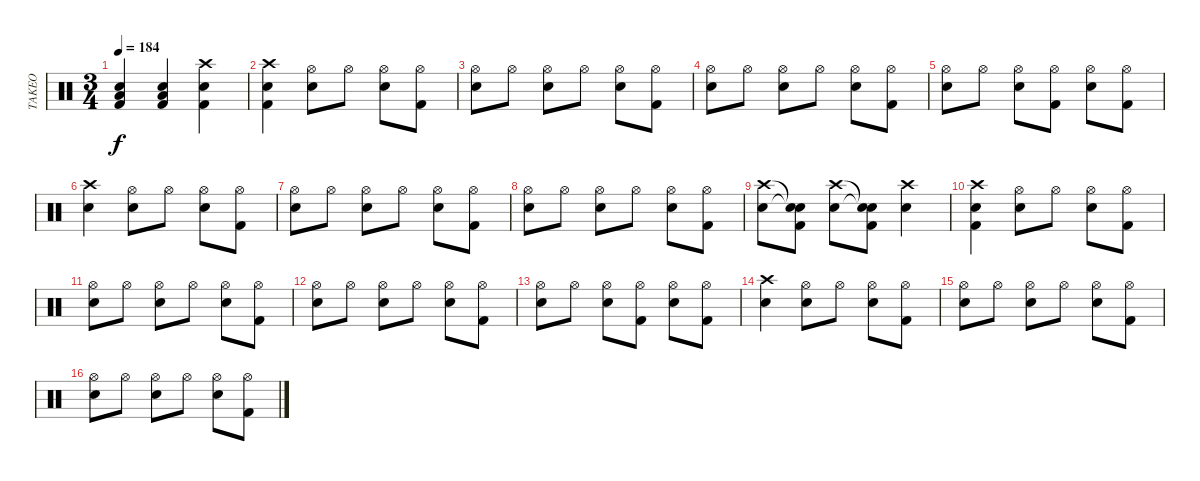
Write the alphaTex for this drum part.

\track ("TAKEO" "TAKEO") {instrument percussion}
\staff {score}
\articulation defaults
\ts (3 4)
\tempo 184
\clef neutral
\ks c
("Electric Snare (hit)" "Low Floor Tom (hit)" "Kick (hit) 2").4{dy f} ("Electric Snare (hit)" "Low Floor Tom (hit)" "Kick (hit) 2").4 ("Crash high (hit)" "Electric Snare (hit)" "Kick (hit) 2").4 |
("Crash high (hit)" "Electric Snare (hit)" "Kick (hit) 2").4 ("Hi-Hat (open)" "Electric Snare (hit)").8 "Hi-Hat (open)".8 ("Hi-Hat (open)" "Electric Snare (hit)").8 ("Hi-Hat (open)" "Kick (hit) 2").8 |
("Hi-Hat (open)" "Electric Snare (hit)").8 "Hi-Hat (open)".8 ("Hi-Hat (open)" "Electric Snare (hit)").8 "Hi-Hat (open)".8 ("Hi-Hat (open)" "Electric Snare (hit)").8 ("Hi-Hat (open)" "Kick (hit) 2").8 |
("Hi-Hat (open)" "Electric Snare (hit)").8 "Hi-Hat (open)".8 ("Hi-Hat (open)" "Electric Snare (hit)").8 "Hi-Hat (open)".8 ("Hi-Hat (open)" "Electric Snare (hit)").8 ("Hi-Hat (open)" "Kick (hit) 2").8 |
("Hi-Hat (open)" "Electric Snare (hit)").8 "Hi-Hat (open)".8 ("Hi-Hat (open)" "Electric Snare (hit)").8 ("Hi-Hat (open)" "Kick (hit) 2").8 ("Hi-Hat (open)" "Electric Snare (hit)").8 ("Hi-Hat (open)" "Kick (hit) 2").8 |
("Crash high (hit)" "Electric Snare (hit)").4 ("Hi-Hat (open)" "Electric Snare (hit)").8 "Hi-Hat (open)".8 ("Hi-Hat (open)" "Electric Snare (hit)").8 ("Hi-Hat (open)" "Kick (hit) 2").8 |
("Hi-Hat (open)" "Electric Snare (hit)").8 "Hi-Hat (open)".8 ("Hi-Hat (open)" "Electric Snare (hit)").8 "Hi-Hat (open)".8 ("Hi-Hat (open)" "Electric Snare (hit)").8 ("Hi-Hat (open)" "Kick (hit) 2").8 |
("Hi-Hat (open)" "Electric Snare (hit)").8 "Hi-Hat (open)".8 ("Hi-Hat (open)" "Electric Snare (hit)").8 "Hi-Hat (open)".8 ("Hi-Hat (open)" "Electric Snare (hit)").8 ("Hi-Hat (open)" "Kick (hit) 2").8 |
("Crash high (hit)" "Electric Snare (hit)").8 ("Snare (hit)"{t} "Snare (hit)"{t} "Kick (hit) 2").8 ("Crash high (hit)" "Electric Snare (hit)").8 ("Snare (hit)"{t} "Snare (hit)"{t} "Kick (hit) 2").8 ("Crash high (hit)" "Electric Snare (hit)").4 |
("Crash high (hit)" "Electric Snare (hit)" "Kick (hit) 2").4 ("Hi-Hat (open)" "Electric Snare (hit)").8 "Hi-Hat (open)".8 ("Hi-Hat (open)" "Electric Snare (hit)").8 ("Hi-Hat (open)" "Kick (hit) 2").8 |
("Hi-Hat (open)" "Electric Snare (hit)").8 "Hi-Hat (open)".8 ("Hi-Hat (open)" "Electric Snare (hit)").8 "Hi-Hat (open)".8 ("Hi-Hat (open)" "Electric Snare (hit)").8 ("Hi-Hat (open)" "Kick (hit) 2").8 |
("Hi-Hat (open)" "Electric Snare (hit)").8 "Hi-Hat (open)".8 ("Hi-Hat (open)" "Electric Snare (hit)").8 "Hi-Hat (open)".8 ("Hi-Hat (open)" "Electric Snare (hit)").8 ("Hi-Hat (open)" "Kick (hit) 2").8 |
("Hi-Hat (open)" "Electric Snare (hit)").8 "Hi-Hat (open)".8 ("Hi-Hat (open)" "Electric Snare (hit)").8 ("Hi-Hat (open)" "Kick (hit) 2").8 ("Hi-Hat (open)" "Electric Snare (hit)").8 ("Hi-Hat (open)" "Kick (hit) 2").8 |
("Crash high (hit)" "Electric Snare (hit)").4 ("Hi-Hat (open)" "Electric Snare (hit)").8 "Hi-Hat (open)".8 ("Hi-Hat (open)" "Electric Snare (hit)").8 ("Hi-Hat (open)" "Kick (hit) 2").8 |
("Hi-Hat (open)" "Electric Snare (hit)").8 "Hi-Hat (open)".8 ("Hi-Hat (open)" "Electric Snare (hit)").8 "Hi-Hat (open)".8 ("Hi-Hat (open)" "Electric Snare (hit)").8 ("Hi-Hat (open)" "Kick (hit) 2").8 |
("Hi-Hat (open)" "Electric Snare (hit)").8 "Hi-Hat (open)".8 ("Hi-Hat (open)" "Electric Snare (hit)").8 "Hi-Hat (open)".8 ("Hi-Hat (open)" "Electric Snare (hit)").8 ("Hi-Hat (open)" "Kick (hit) 2").8
